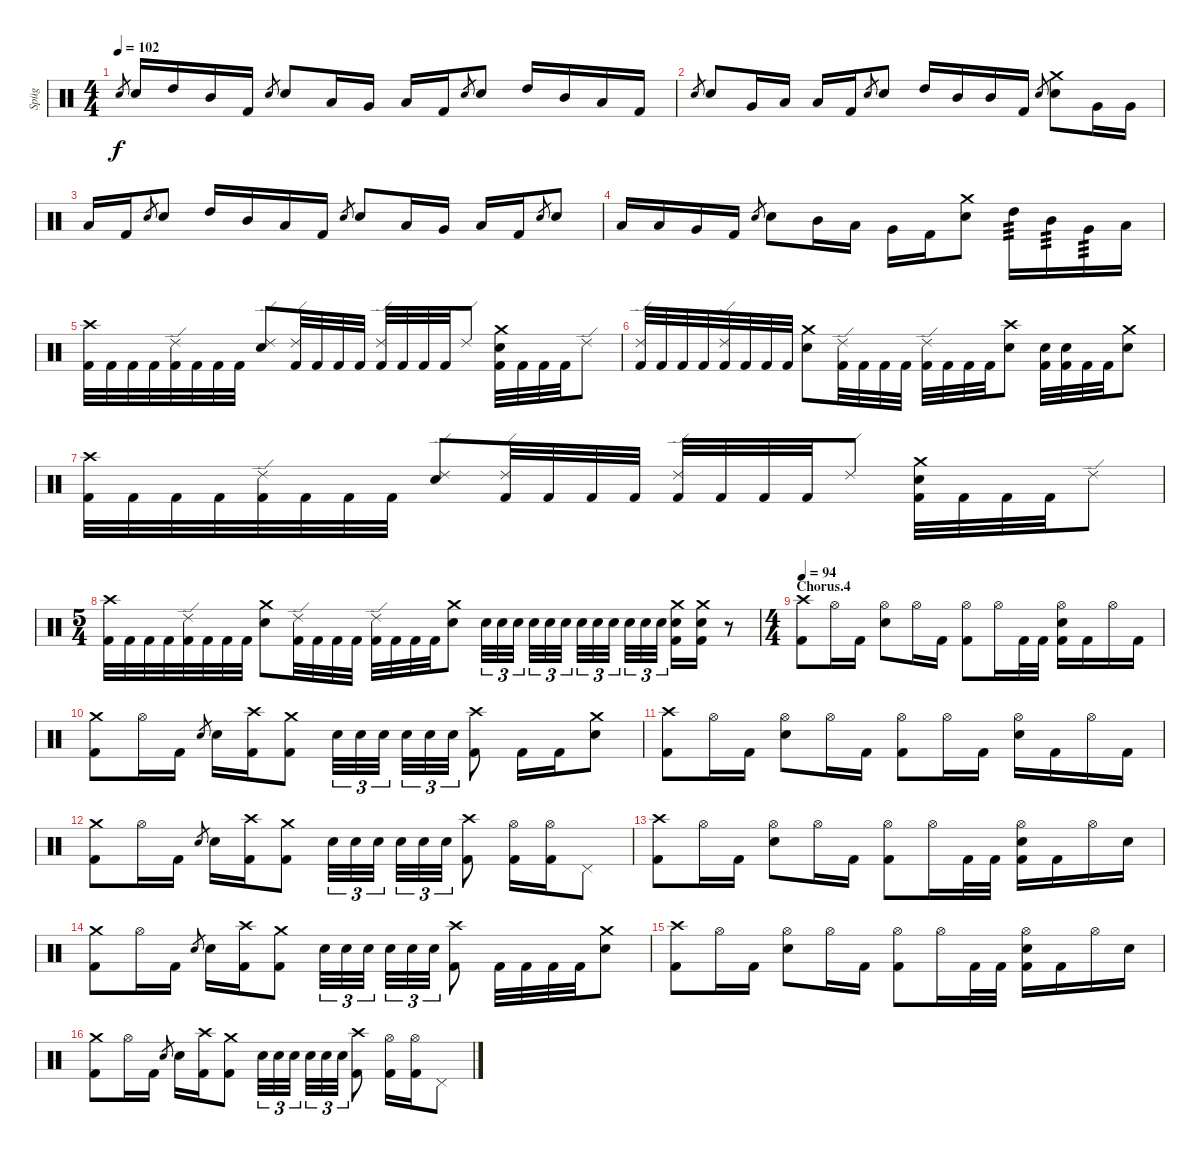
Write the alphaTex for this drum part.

\track ("Spüg" "Spüg") {instrument percussion}
\staff {score}
\articulation defaults
\ts (4 4)
\tempo 102
\clef neutral
\ks c "Electric Snare (hit)".8{gr dy f} "Electric Snare (hit)".16 "High Tom (hit)".16 "Mid Tom (hit)".16 "Kick (hit) 2".16 "Electric Snare (hit)".8{gr} "Electric Snare (hit)".8 "Low Tom (hit)".16 "Very Low Tom (hit)".16 "Low Floor Tom (hit)".16 "Kick (hit) 2".16 "Electric Snare (hit)".8{gr} "Electric Snare (hit)".8 "High Tom (hit)".16 "Mid Tom (hit)".16 "Low Tom (hit)".16 "Kick (hit) 2".16
|
"Electric Snare (hit)".8{gr} "Electric Snare (hit)".8 "Very Low Tom (hit)".16 "Low Floor Tom (hit)".16 "Low Floor Tom (hit)".16 "Kick (hit) 2".16 "Electric Snare (hit)".8{gr} "Electric Snare (hit)".8 "High Tom (hit)".16 "Mid Tom (hit)".16 "Mid Tom (hit)".16 "Kick (hit) 2".16 "Electric Snare (hit)".8{gr} ("Crash medium (hit)" "Electric Snare (hit)").8 "Very Low Tom (hit)".16 "Very Low Tom (hit)".16 |
"Low Floor Tom (hit)".16 "Kick (hit) 2".16 "Electric Snare (hit)".8{gr} "Electric Snare (hit)".8 "High Tom (hit)".16 "Mid Tom (hit)".16 "Low Tom (hit)".16 "Kick (hit) 2".16 "Electric Snare (hit)".8{gr} "Electric Snare (hit)".8 "Low Tom (hit)".16 "Very Low Tom (hit)".16 "Low Floor Tom (hit)".16 "Kick (hit) 2".16 "Electric Snare (hit)".8{gr} "Electric Snare (hit)".8 |
"Low Tom (hit)".16 "Low Tom (hit)".16 "Very Low Tom (hit)".16 "Kick (hit) 2".16 "Electric Snare (hit)".8{gr} "Electric Snare (hit)".8 "Mid Tom (hit)".16 "Low Tom (hit)".16 "Very Low Tom (hit)".16 "Kick (hit) 2".16 ("Crash medium (hit)" "Electric Snare (hit)").8 "High Tom (hit)".16{tp 3} "Mid Tom (hit)".16{tp 3} "Very Low Tom (hit)".16{tp 3} "Low Floor Tom (hit)".16 |
("Crash high (hit)" "Kick (hit) 2").32 "Kick (hit) 2".32 "Kick (hit) 2".32 "Kick (hit) 2".32 ("Ride (edge) 2" "Kick (hit) 2").32 "Kick (hit) 2".32 "Kick (hit) 2".32 "Kick (hit) 2".32 ("Ride (edge) 2" "Electric Snare (hit)").8 ("Ride (edge) 2" "Kick (hit) 2").32 "Kick (hit) 2".32 "Kick (hit) 2".32 "Kick (hit) 2".32 ("Ride (edge) 2" "Kick (hit) 2").32 "Kick (hit) 2".32 "Kick (hit) 2".32 "Kick (hit) 2".32 "Ride (edge) 2".8 ("Crash medium (hit)" "Electric Snare (hit)" "Kick (hit) 2").32 "Kick (hit) 2".32 "Kick (hit) 2".32 "Kick (hit) 2".32 "Ride (edge) 2".8 |
("Ride (edge) 2" "Kick (hit) 2").32 "Kick (hit) 2".32 "Kick (hit) 2".32 "Kick (hit) 2".32 ("Ride (edge) 2" "Kick (hit) 2").32 "Kick (hit) 2".32 "Kick (hit) 2".32 "Kick (hit) 2".32 ("Crash medium (hit)" "Electric Snare (hit)").8 ("Ride (edge) 2" "Kick (hit) 2").32 "Kick (hit) 2".32 "Kick (hit) 2".32 "Kick (hit) 2".32 ("Ride (edge) 2" "Kick (hit) 2").32 "Kick (hit) 2".32 "Kick (hit) 2".32 "Kick (hit) 2".32 ("Crash high (hit)" "Electric Snare (hit)").8 ("Electric Snare (hit)" "Kick (hit) 2").32 ("Electric Snare (hit)" "Kick (hit) 2").32 "Kick (hit) 2".32 "Kick (hit) 2".32 ("Crash medium (hit)" "Electric Snare (hit)").8 |
("Crash high (hit)" "Kick (hit) 2").32 "Kick (hit) 2".32 "Kick (hit) 2".32 "Kick (hit) 2".32 ("Ride (edge) 2" "Kick (hit) 2").32 "Kick (hit) 2".32 "Kick (hit) 2".32 "Kick (hit) 2".32 ("Ride (edge) 2" "Electric Snare (hit)").8 ("Ride (edge) 2" "Kick (hit) 2").32 "Kick (hit) 2".32 "Kick (hit) 2".32 "Kick (hit) 2".32 ("Ride (edge) 2" "Kick (hit) 2").32 "Kick (hit) 2".32 "Kick (hit) 2".32 "Kick (hit) 2".32 "Ride (edge) 2".8 ("Crash medium (hit)" "Electric Snare (hit)" "Kick (hit) 2").32 "Kick (hit) 2".32 "Kick (hit) 2".32 "Kick (hit) 2".32 "Ride (edge) 2".8 |
\ts (5 4)
("Crash high (hit)" "Kick (hit) 2").32 "Kick (hit) 2".32 "Kick (hit) 2".32 "Kick (hit) 2".32 ("Ride (edge) 2" "Kick (hit) 2").32 "Kick (hit) 2".32 "Kick (hit) 2".32 "Kick (hit) 2".32 ("Crash medium (hit)" "Electric Snare (hit)").8 ("Ride (edge) 2" "Kick (hit) 2").32 "Kick (hit) 2".32 "Kick (hit) 2".32 "Kick (hit) 2".32 ("Ride (edge) 2" "Kick (hit) 2").32 "Kick (hit) 2".32 "Kick (hit) 2".32 "Kick (hit) 2".32 ("Crash medium (hit)" "Electric Snare (hit)").8 "Electric Snare (hit)".32{tu (3 2)} "Electric Snare (hit)".32{tu (3 2)} "Electric Snare (hit)".32{tu (3 2)} "Electric Snare (hit)".32{tu (3 2)} "Electric Snare (hit)".32{tu (3 2)} "Electric Snare (hit)".32{tu (3 2)} "Electric Snare (hit)".32{tu (3 2)} "Electric Snare (hit)".32{tu (3 2)} "Electric Snare (hit)".32{tu (3 2)} "Electric Snare (hit)".32{tu (3 2)} "Electric Snare (hit)".32{tu (3 2)} "Electric Snare (hit)".32{tu (3 2)} ("Crash medium (hit)" "Electric Snare (hit)" "Kick (hit) 2").16 ("Crash medium (hit)" "Electric Snare (hit)" "Kick (hit) 2").16 r.8 |
\ts (4 4)
\section ("" "Chorus.4")
\tempo 94
("Crash high (hit)" "Kick (hit) 2").8 "Hi-Hat (open)".16 "Kick (hit) 2".16 ("Hi-Hat (open)" "Electric Snare (hit)").8 "Hi-Hat (open)".16 "Kick (hit) 2".16 ("Hi-Hat (open)" "Kick (hit) 2").8 "Hi-Hat (open)".16 "Kick (hit) 2".32 "Kick (hit) 2".32 ("Hi-Hat (open)" "Electric Snare (hit)" "Kick (hit) 2").16 "Kick (hit) 2".16 "Hi-Hat (open)".16 "Kick (hit) 2".16 |
("Crash medium (hit)" "Kick (hit) 2").8 "Hi-Hat (open)".16 "Kick (hit) 2".16 "Electric Snare (hit)".8{gr} "Electric Snare (hit)".16 ("Crash high (hit)" "Kick (hit) 2").16 ("Crash medium (hit)" "Kick (hit) 2").8 "Electric Snare (hit)".32{tu (3 2)} "Electric Snare (hit)".32{tu (3 2)} "Electric Snare (hit)".32{tu (3 2)} "Electric Snare (hit)".32{tu (3 2)} "Electric Snare (hit)".32{tu (3 2)} "Electric Snare (hit)".32{tu (3 2)} ("Crash high (hit)" "Kick (hit) 2").8 "Kick (hit) 2".16 "Kick (hit) 2".16 ("Crash medium (hit)" "Electric Snare (hit)").8 |
("Crash high (hit)" "Kick (hit) 2").8 "Hi-Hat (open)".16 "Kick (hit) 2".16 ("Hi-Hat (open)" "Electric Snare (hit)").8 "Hi-Hat (open)".16 "Kick (hit) 2".16 ("Hi-Hat (open)" "Kick (hit) 2").8 "Hi-Hat (open)".16 "Kick (hit) 2".16 ("Hi-Hat (open)" "Electric Snare (hit)").16 "Kick (hit) 2".16 "Hi-Hat (open)".16 "Kick (hit) 2".16 |
("Crash medium (hit)" "Kick (hit) 2").8 "Hi-Hat (open)".16 "Kick (hit) 2".16 "Electric Snare (hit)".8{gr} "Electric Snare (hit)".16 ("Crash high (hit)" "Kick (hit) 2").16 ("Crash medium (hit)" "Kick (hit) 2").8 "Electric Snare (hit)".32{tu (3 2)} "Electric Snare (hit)".32{tu (3 2)} "Electric Snare (hit)".32{tu (3 2)} "Electric Snare (hit)".32{tu (3 2)} "Electric Snare (hit)".32{tu (3 2)} "Electric Snare (hit)".32{tu (3 2)} ("Crash high (hit)" "Kick (hit) 2").8 ("Hi-Hat (open)" "Kick (hit) 2").16 ("Hi-Hat (open)" "Kick (hit) 2").16 "Pedal Hi-Hat (hit)".8 |
("Crash high (hit)" "Kick (hit) 2").8 "Hi-Hat (open)".16 "Kick (hit) 2".16 ("Hi-Hat (open)" "Electric Snare (hit)").8 "Hi-Hat (open)".16 "Kick (hit) 2".16 ("Hi-Hat (open)" "Kick (hit) 2").8 "Hi-Hat (open)".16 "Kick (hit) 2".32 "Kick (hit) 2".32 ("Hi-Hat (open)" "Electric Snare (hit)" "Kick (hit) 2").16 "Kick (hit) 2".16 "Hi-Hat (open)".16 "Electric Snare (hit)".16 |
("Crash medium (hit)" "Kick (hit) 2").8 "Hi-Hat (open)".16 "Kick (hit) 2".16 "Electric Snare (hit)".8{gr} "Electric Snare (hit)".16 ("Crash high (hit)" "Kick (hit) 2").16 ("Crash medium (hit)" "Kick (hit) 2").8 "Electric Snare (hit)".32{tu (3 2)} "Electric Snare (hit)".32{tu (3 2)} "Electric Snare (hit)".32{tu (3 2)} "Electric Snare (hit)".32{tu (3 2)} "Electric Snare (hit)".32{tu (3 2)} "Electric Snare (hit)".32{tu (3 2)} ("Crash high (hit)" "Kick (hit) 2").8 "Kick (hit) 2".32 "Kick (hit) 2".32 "Kick (hit) 2".32 "Kick (hit) 2".32 ("Crash medium (hit)" "Electric Snare (hit)").8 |
("Crash high (hit)" "Kick (hit) 2").8 "Hi-Hat (open)".16 "Kick (hit) 2".16 ("Hi-Hat (open)" "Electric Snare (hit)").8 "Hi-Hat (open)".16 "Kick (hit) 2".16 ("Hi-Hat (open)" "Kick (hit) 2").8 "Hi-Hat (open)".16 "Kick (hit) 2".32 "Kick (hit) 2".32 ("Hi-Hat (open)" "Electric Snare (hit)" "Kick (hit) 2").16 "Kick (hit) 2".16 "Hi-Hat (open)".16 "Electric Snare (hit)".16 |
("Crash medium (hit)" "Kick (hit) 2").8 "Hi-Hat (open)".16 "Kick (hit) 2".16 "Electric Snare (hit)".8{gr} "Electric Snare (hit)".16 ("Crash high (hit)" "Kick (hit) 2").16 ("Crash medium (hit)" "Kick (hit) 2").8 "Electric Snare (hit)".32{tu (3 2)} "Electric Snare (hit)".32{tu (3 2)} "Electric Snare (hit)".32{tu (3 2)} "Electric Snare (hit)".32{tu (3 2)} "Electric Snare (hit)".32{tu (3 2)} "Electric Snare (hit)".32{tu (3 2)} ("Crash high (hit)" "Kick (hit) 2").8 ("Hi-Hat (open)" "Kick (hit) 2").16 ("Hi-Hat (open)" "Kick (hit) 2").16 "Pedal Hi-Hat (hit)".8
